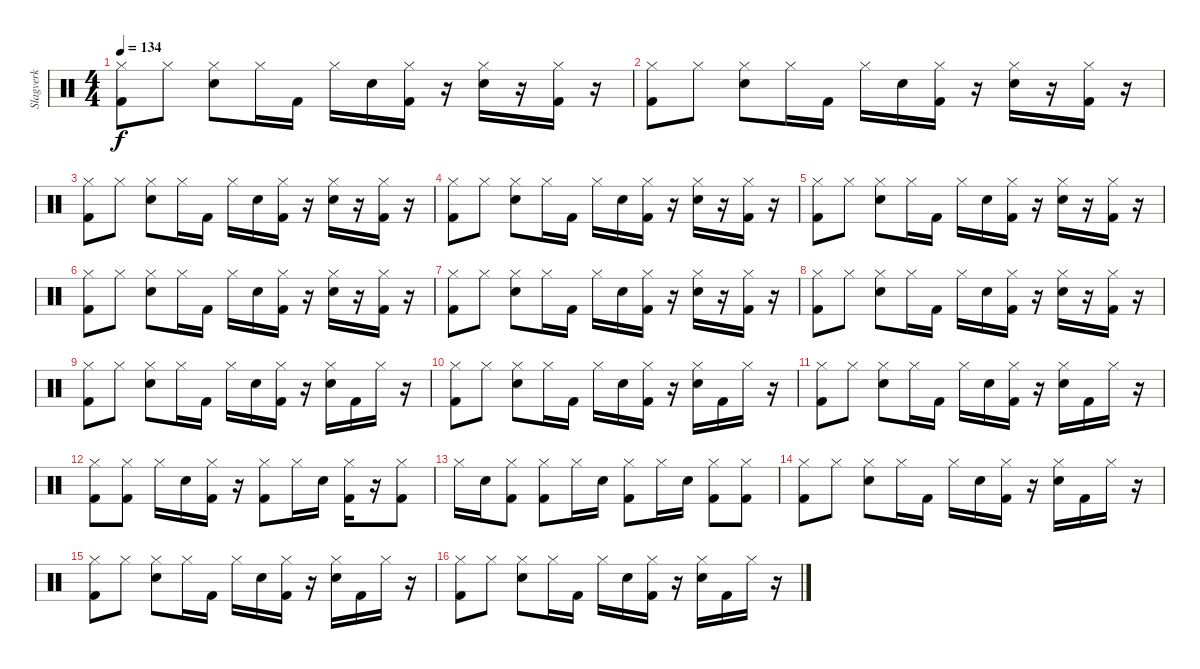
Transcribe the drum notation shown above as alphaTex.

\track ("Slagverk" "Slagverk") {instrument percussion}
\staff {score}
\articulation defaults
\ts (4 4)
\tempo 134
\clef neutral
\ks c
("Hi-Hat (closed)" "Kick (hit) 2").8{dy f} "Hi-Hat (closed)".8 ("Hi-Hat (closed)" "Electric Snare (hit)").8 "Hi-Hat (closed)".16 "Kick (hit) 2".16 "Hi-Hat (closed)".16 "Electric Snare (hit)".16 ("Hi-Hat (closed)" "Kick (hit) 2").16 r.16 ("Hi-Hat (closed)" "Electric Snare (hit)").16 r.16 ("Hi-Hat (closed)" "Kick (hit) 2").16 r.16 |
("Hi-Hat (closed)" "Kick (hit) 2").8 "Hi-Hat (closed)".8 ("Hi-Hat (closed)" "Electric Snare (hit)").8 "Hi-Hat (closed)".16 "Kick (hit) 2".16 "Hi-Hat (closed)".16 "Electric Snare (hit)".16 ("Hi-Hat (closed)" "Kick (hit) 2").16 r.16 ("Hi-Hat (closed)" "Electric Snare (hit)").16 r.16 ("Hi-Hat (closed)" "Kick (hit) 2").16 r.16 |
("Hi-Hat (closed)" "Kick (hit) 2").8 "Hi-Hat (closed)".8 ("Hi-Hat (closed)" "Electric Snare (hit)").8 "Hi-Hat (closed)".16 "Kick (hit) 2".16 "Hi-Hat (closed)".16 "Electric Snare (hit)".16 ("Hi-Hat (closed)" "Kick (hit) 2").16 r.16 ("Hi-Hat (closed)" "Electric Snare (hit)").16 r.16 ("Hi-Hat (closed)" "Kick (hit) 2").16 r.16 |
("Hi-Hat (closed)" "Kick (hit) 2").8 "Hi-Hat (closed)".8 ("Hi-Hat (closed)" "Electric Snare (hit)").8 "Hi-Hat (closed)".16 "Kick (hit) 2".16 "Hi-Hat (closed)".16 "Electric Snare (hit)".16 ("Hi-Hat (closed)" "Kick (hit) 2").16 r.16 ("Hi-Hat (closed)" "Electric Snare (hit)").16 r.16 ("Hi-Hat (closed)" "Kick (hit) 2").16 r.16 |
("Hi-Hat (closed)" "Kick (hit) 2").8 "Hi-Hat (closed)".8 ("Hi-Hat (closed)" "Electric Snare (hit)").8 "Hi-Hat (closed)".16 "Kick (hit) 2".16 "Hi-Hat (closed)".16 "Electric Snare (hit)".16 ("Hi-Hat (closed)" "Kick (hit) 2").16 r.16 ("Hi-Hat (closed)" "Electric Snare (hit)").16 r.16 ("Hi-Hat (closed)" "Kick (hit) 2").16 r.16 |
("Hi-Hat (closed)" "Kick (hit) 2").8 "Hi-Hat (closed)".8 ("Hi-Hat (closed)" "Electric Snare (hit)").8 "Hi-Hat (closed)".16 "Kick (hit) 2".16 "Hi-Hat (closed)".16 "Electric Snare (hit)".16 ("Hi-Hat (closed)" "Kick (hit) 2").16 r.16 ("Hi-Hat (closed)" "Electric Snare (hit)").16 r.16 ("Hi-Hat (closed)" "Kick (hit) 2").16 r.16 |
("Hi-Hat (closed)" "Kick (hit) 2").8 "Hi-Hat (closed)".8 ("Hi-Hat (closed)" "Electric Snare (hit)").8 "Hi-Hat (closed)".16 "Kick (hit) 2".16 "Hi-Hat (closed)".16 "Electric Snare (hit)".16 ("Hi-Hat (closed)" "Kick (hit) 2").16 r.16 ("Hi-Hat (closed)" "Electric Snare (hit)").16 r.16 ("Hi-Hat (closed)" "Kick (hit) 2").16 r.16 |
("Hi-Hat (closed)" "Kick (hit) 2").8 "Hi-Hat (closed)".8 ("Hi-Hat (closed)" "Electric Snare (hit)").8 "Hi-Hat (closed)".16 "Kick (hit) 2".16 "Hi-Hat (closed)".16 "Electric Snare (hit)".16 ("Hi-Hat (closed)" "Kick (hit) 2").16 r.16 ("Hi-Hat (closed)" "Electric Snare (hit)").16 r.16 ("Hi-Hat (closed)" "Kick (hit) 2").16 r.16 |
("Hi-Hat (closed)" "Kick (hit) 2").8 "Hi-Hat (closed)".8 ("Hi-Hat (closed)" "Electric Snare (hit)").8 "Hi-Hat (closed)".16 "Kick (hit) 2".16 "Hi-Hat (closed)".16 "Electric Snare (hit)".16 ("Hi-Hat (closed)" "Kick (hit) 2").16 r.16 ("Hi-Hat (closed)" "Electric Snare (hit)").16 "Kick (hit) 2".16 "Hi-Hat (closed)".16 r.16 |
("Hi-Hat (closed)" "Kick (hit) 2").8 "Hi-Hat (closed)".8 ("Hi-Hat (closed)" "Electric Snare (hit)").8 "Hi-Hat (closed)".16 "Kick (hit) 2".16 "Hi-Hat (closed)".16 "Electric Snare (hit)".16 ("Hi-Hat (closed)" "Kick (hit) 2").16 r.16 ("Hi-Hat (closed)" "Electric Snare (hit)").16 "Kick (hit) 2".16 "Hi-Hat (closed)".16 r.16 |
("Hi-Hat (closed)" "Kick (hit) 2").8 "Hi-Hat (closed)".8 ("Hi-Hat (closed)" "Electric Snare (hit)").8 "Hi-Hat (closed)".16 "Kick (hit) 2".16 "Hi-Hat (closed)".16 "Electric Snare (hit)".16 ("Hi-Hat (closed)" "Kick (hit) 2").16 r.16 ("Hi-Hat (closed)" "Electric Snare (hit)").16 "Kick (hit) 2".16 "Hi-Hat (closed)".16 r.16 |
("Hi-Hat (closed)" "Kick (hit) 2").8 ("Hi-Hat (closed)" "Kick (hit) 2").8 "Hi-Hat (closed)".16 "Electric Snare (hit)".16 ("Kick (hit) 2" "Hi-Hat (closed)").16 r.16 ("Hi-Hat (closed)" "Kick (hit) 2").8 "Hi-Hat (closed)".16 "Electric Snare (hit)".16 ("Kick (hit) 2" "Hi-Hat (closed)").16 r.16 ("Hi-Hat (closed)" "Kick (hit) 2").8 |
"Hi-Hat (closed)".16 "Electric Snare (hit)".16 ("Kick (hit) 2" "Hi-Hat (closed)").8 ("Kick (hit) 2" "Hi-Hat (closed)").8 "Hi-Hat (closed)".16 "Electric Snare (hit)".16 ("Kick (hit) 2" "Hi-Hat (closed)").8 "Hi-Hat (closed)".16 "Electric Snare (hit)".16 ("Kick (hit) 2" "Hi-Hat (closed)").8 ("Kick (hit) 2" "Hi-Hat (closed)").8 |
("Hi-Hat (closed)" "Kick (hit) 2").8 "Hi-Hat (closed)".8 ("Hi-Hat (closed)" "Electric Snare (hit)").8 "Hi-Hat (closed)".16 "Kick (hit) 2".16 "Hi-Hat (closed)".16 "Electric Snare (hit)".16 ("Hi-Hat (closed)" "Kick (hit) 2").16 r.16 ("Hi-Hat (closed)" "Electric Snare (hit)").16 "Kick (hit) 2".16 "Hi-Hat (closed)".16 r.16 |
("Hi-Hat (closed)" "Kick (hit) 2").8 "Hi-Hat (closed)".8 ("Hi-Hat (closed)" "Electric Snare (hit)").8 "Hi-Hat (closed)".16 "Kick (hit) 2".16 "Hi-Hat (closed)".16 "Electric Snare (hit)".16 ("Hi-Hat (closed)" "Kick (hit) 2").16 r.16 ("Hi-Hat (closed)" "Electric Snare (hit)").16 "Kick (hit) 2".16 "Hi-Hat (closed)".16 r.16 |
("Hi-Hat (closed)" "Kick (hit) 2").8 "Hi-Hat (closed)".8 ("Hi-Hat (closed)" "Electric Snare (hit)").8 "Hi-Hat (closed)".16 "Kick (hit) 2".16 "Hi-Hat (closed)".16 "Electric Snare (hit)".16 ("Hi-Hat (closed)" "Kick (hit) 2").16 r.16 ("Hi-Hat (closed)" "Electric Snare (hit)").16 "Kick (hit) 2".16 "Hi-Hat (closed)".16 r.16
